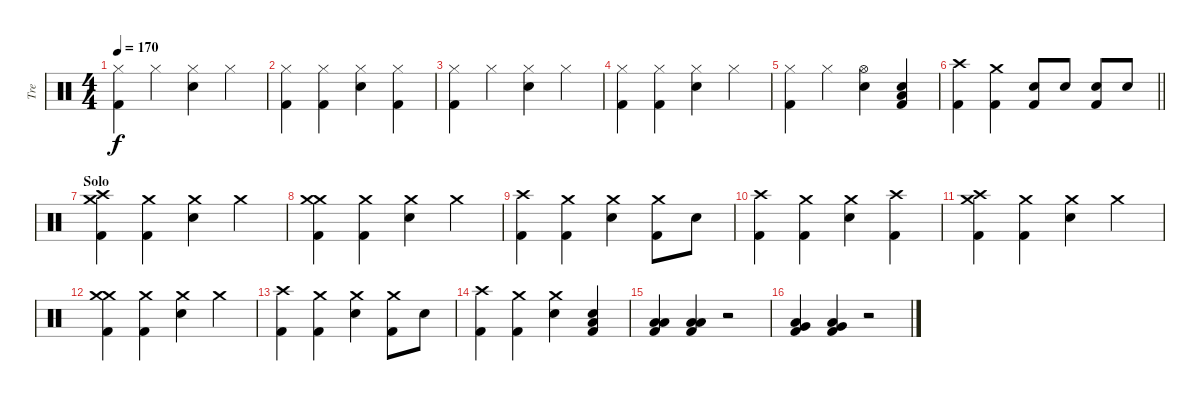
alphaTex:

\track ("Tre" "Tre") {instrument percussion}
\staff {score}
\articulation defaults
\ts (4 4)
\tempo 170
\clef neutral
\ks c
("Hi-Hat (closed)" "Kick (hit) 2").4{dy f} "Hi-Hat (closed)".4 ("Hi-Hat (closed)" "Snare (hit) 2").4 "Hi-Hat (closed)".4 |
("Hi-Hat (closed)" "Kick (hit) 2").4 ("Hi-Hat (closed)" "Kick (hit) 2").4 ("Hi-Hat (closed)" "Snare (hit) 2").4 ("Hi-Hat (closed)" "Kick (hit) 2").4 |
("Hi-Hat (closed)" "Kick (hit) 2").4 "Hi-Hat (closed)".4 ("Hi-Hat (closed)" "Snare (hit) 2").4 "Hi-Hat (closed)".4 |
("Hi-Hat (closed)" "Kick (hit) 2").4 ("Hi-Hat (closed)" "Kick (hit) 2").4 ("Hi-Hat (closed)" "Snare (hit) 2").4 "Hi-Hat (closed)".4 |
("Hi-Hat (closed)" "Kick (hit) 2").4 "Hi-Hat (closed)".4 ("Hi-Hat (open)" "Snare (hit) 2").4 ("Snare (hit) 2" "Low Floor Tom (hit)" "Kick (hit) 2").4 |
\barLineRight lightlight
("Crash high (hit)" "Kick (hit) 2").4 ("Crash medium (hit)" "Kick (hit) 2").4 ("Snare (hit) 2" "Kick (hit) 2").8 "Snare (hit) 2".8 ("Snare (hit) 2" "Kick (hit) 2").8 "Snare (hit) 2".8 |
\section ("" "Solo")
("Crash medium (hit)" "Crash high (hit)" "Kick (hit) 2").4 ("Crash medium (hit)" "Kick (hit) 2").4 ("Crash medium (hit)" "Snare (hit) 2").4 "Crash medium (hit)".4 |
("Crash medium (hit)" "Crash medium (hit)" "Kick (hit) 2").4 ("Crash medium (hit)" "Kick (hit) 2").4 ("Crash medium (hit)" "Snare (hit) 2").4 "Crash medium (hit)".4 |
("Crash high (hit)" "Kick (hit) 2").4 ("Crash medium (hit)" "Kick (hit) 2").4 ("Crash medium (hit)" "Snare (hit) 2").4 ("Crash medium (hit)" "Kick (hit) 2").8 "Snare (hit) 2".8 |
("Crash high (hit)" "Kick (hit) 2").4 ("Crash medium (hit)" "Kick (hit) 2").4 ("Crash medium (hit)" "Snare (hit) 2").4 ("Crash high (hit)" "Kick (hit) 2").4 |
("Crash medium (hit)" "Crash high (hit)" "Kick (hit) 2").4 ("Crash medium (hit)" "Kick (hit) 2").4 ("Crash medium (hit)" "Snare (hit) 2").4 "Crash medium (hit)".4 |
("Crash medium (hit)" "Crash medium (hit)" "Kick (hit) 2").4 ("Crash medium (hit)" "Kick (hit) 2").4 ("Crash medium (hit)" "Snare (hit) 2").4 "Crash medium (hit)".4 |
("Crash high (hit)" "Kick (hit) 2").4 ("Crash medium (hit)" "Kick (hit) 2").4 ("Crash medium (hit)" "Snare (hit) 2").4 ("Crash medium (hit)" "Kick (hit) 2").8 "Snare (hit) 2".8 |
("Crash high (hit)" "Kick (hit) 2").4 ("Crash medium (hit)" "Kick (hit) 2").4 ("Crash medium (hit)" "Snare (hit) 2").4 ("Snare (hit) 2" "Low Floor Tom (hit)" "Kick (hit) 2").4 |
("Low Tom (hit)" "Low Floor Tom (hit)" "Kick (hit) 2").4 ("Low Tom (hit)" "Low Floor Tom (hit)" "Kick (hit) 2").4 r.2 |
("Very Low Tom (hit)" "Low Floor Tom (hit)" "Kick (hit) 2").4 ("Very Low Tom (hit)" "Low Floor Tom (hit)" "Kick (hit) 2").4 r.2
